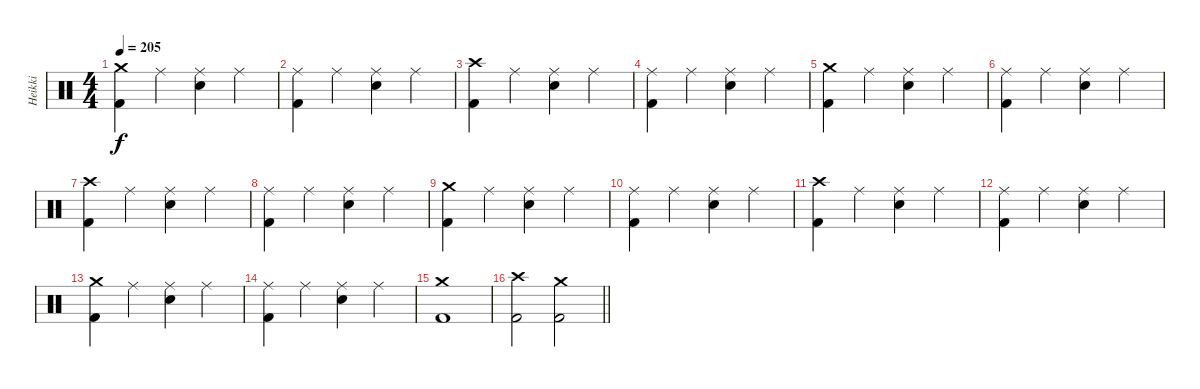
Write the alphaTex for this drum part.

\track ("Heikki" "Heikki") {instrument percussion}
\staff {score}
\articulation defaults
\ts (4 4)
\tempo 205
\clef neutral
\ks c
("Crash medium (hit)" "Kick (hit) 2").4{dy f} "Ride (middle)".4 ("Ride (middle)" "Electric Snare (hit)").4 "Ride (middle)".4 |
("Ride (middle)" "Kick (hit) 2").4 "Ride (middle)".4 ("Ride (middle)" "Electric Snare (hit)").4 "Ride (middle)".4 |
("Crash high (hit)" "Kick (hit) 2").4 "Ride (middle)".4 ("Ride (middle)" "Electric Snare (hit)").4 "Ride (middle)".4 |
("Ride (middle)" "Kick (hit) 2").4 "Ride (middle)".4 ("Ride (middle)" "Electric Snare (hit)").4 "Ride (middle)".4 |
("Crash medium (hit)" "Kick (hit) 2").4 "Ride (middle)".4 ("Ride (middle)" "Electric Snare (hit)").4 "Ride (middle)".4 |
("Ride (middle)" "Kick (hit) 2").4 "Ride (middle)".4 ("Ride (middle)" "Electric Snare (hit)").4 "Ride (middle)".4 |
("Crash high (hit)" "Kick (hit) 2").4 "Ride (middle)".4 ("Ride (middle)" "Electric Snare (hit)").4 "Ride (middle)".4 |
("Ride (middle)" "Kick (hit) 2").4 "Ride (middle)".4 ("Ride (middle)" "Electric Snare (hit)").4 "Ride (middle)".4 |
("Crash medium (hit)" "Kick (hit) 2").4 "Ride (middle)".4 ("Ride (middle)" "Electric Snare (hit)").4 "Ride (middle)".4 |
("Ride (middle)" "Kick (hit) 2").4 "Ride (middle)".4 ("Ride (middle)" "Electric Snare (hit)").4 "Ride (middle)".4 |
("Crash high (hit)" "Kick (hit) 2").4 "Ride (middle)".4 ("Ride (middle)" "Electric Snare (hit)").4 "Ride (middle)".4 |
("Ride (middle)" "Kick (hit) 2").4 "Ride (middle)".4 ("Ride (middle)" "Electric Snare (hit)").4 "Ride (middle)".4 |
("Crash medium (hit)" "Kick (hit) 2").4 "Ride (middle)".4 ("Ride (middle)" "Electric Snare (hit)").4 "Ride (middle)".4 |
("Ride (middle)" "Kick (hit) 2").4 "Ride (middle)".4 ("Ride (middle)" "Electric Snare (hit)").4 "Ride (middle)".4 |
("Crash medium (hit)" "Kick (hit) 2").1 |
\barLineRight lightlight
("Crash high (hit)" "Kick (hit) 2").2 ("Crash medium (hit)" "Kick (hit) 2").2
